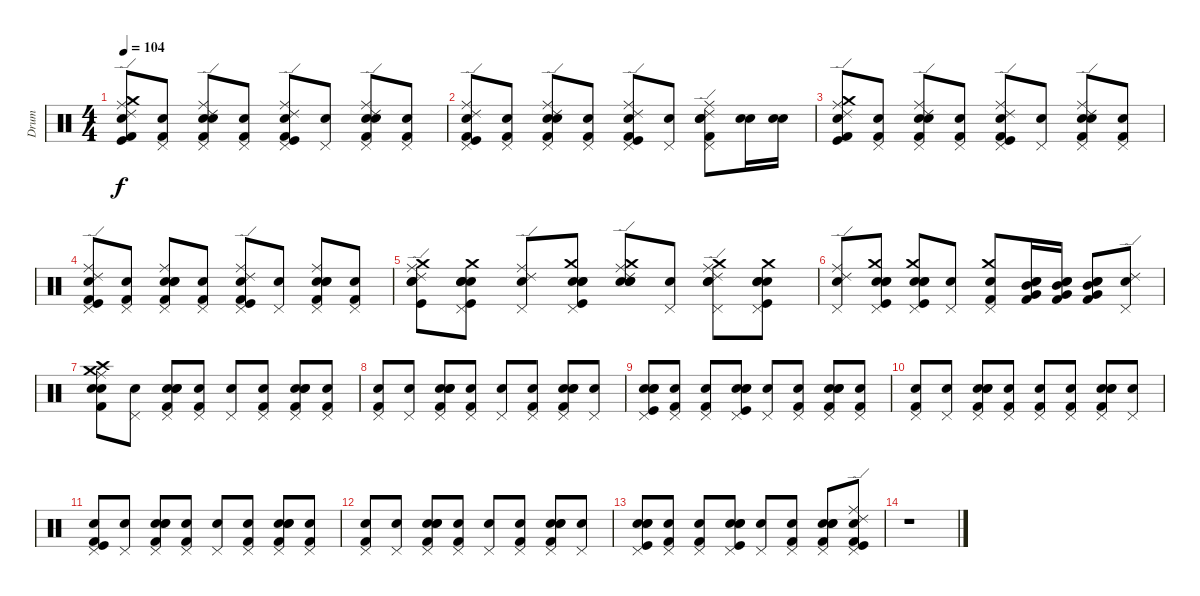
\track ("Drum" "Drum") {instrument percussion}
\staff {score}
\articulation defaults
\ts (4 4)
\tempo 104
\clef neutral
\ks c
("Snare (hit)" "Kick (hit) 2" "Ride (middle)" "Ride (edge) 2" "Crash medium (hit)" "Kick (hit)").8{dy f} ("Snare (hit)" "Kick (hit) 2" "Pedal Hi-Hat (hit)").8 ("Snare (hit)" "Ride (middle)" "Ride (edge) 2" "Pedal Hi-Hat (hit)" "Snare (hit) 2" "Kick (hit) 2").8 ("Snare (hit)" "Kick (hit) 2" "Pedal Hi-Hat (hit)").8 ("Snare (hit)" "Kick (hit) 2" "Ride (middle)" "Ride (edge) 2" "Pedal Hi-Hat (hit)" "Kick (hit)").8 ("Snare (hit)" "Pedal Hi-Hat (hit)").8 ("Snare (hit)" "Ride (middle)" "Ride (edge) 2" "Pedal Hi-Hat (hit)" "Electric Snare (hit)" "Kick (hit) 2").8 ("Snare (hit)" "Kick (hit) 2" "Pedal Hi-Hat (hit)").8 |
("Snare (hit)" "Kick (hit) 2" "Ride (middle)" "Ride (edge) 2" "Pedal Hi-Hat (hit)" "Kick (hit)").8 ("Snare (hit)" "Kick (hit) 2" "Pedal Hi-Hat (hit)").8 ("Snare (hit)" "Ride (middle)" "Ride (edge) 2" "Pedal Hi-Hat (hit)" "Snare (hit) 2" "Kick (hit) 2").8 ("Snare (hit)" "Kick (hit) 2" "Pedal Hi-Hat (hit)").8 ("Snare (hit)" "Kick (hit) 2" "Ride (middle)" "Ride (edge) 2" "Pedal Hi-Hat (hit)" "Kick (hit)").8 ("Snare (hit)" "Pedal Hi-Hat (hit)").8 ("Snare (hit)" "Ride (middle)" "Ride (edge) 2" "Pedal Hi-Hat (hit)" "Electric Snare (hit)" "Kick (hit) 2").8 ("Snare (hit)" "Snare (hit) 2").16 ("Snare (hit)" "Snare (hit) 2").16 |
("Snare (hit)" "Kick (hit) 2" "Ride (middle)" "Ride (edge) 2" "Crash medium (hit)" "Kick (hit)").8 ("Snare (hit)" "Kick (hit) 2" "Pedal Hi-Hat (hit)").8 ("Snare (hit)" "Ride (middle)" "Ride (edge) 2" "Pedal Hi-Hat (hit)" "Snare (hit) 2" "Kick (hit) 2").8 ("Snare (hit)" "Kick (hit) 2" "Pedal Hi-Hat (hit)").8 ("Snare (hit)" "Kick (hit) 2" "Ride (middle)" "Ride (edge) 2" "Pedal Hi-Hat (hit)" "Kick (hit)").8 ("Snare (hit)" "Pedal Hi-Hat (hit)").8 ("Snare (hit)" "Ride (middle)" "Ride (edge) 2" "Pedal Hi-Hat (hit)" "Electric Snare (hit)" "Kick (hit) 2").8 ("Snare (hit)" "Kick (hit) 2" "Pedal Hi-Hat (hit)").8 |
("Snare (hit)" "Kick (hit)" "Pedal Hi-Hat (hit)" "Ride (edge) 2" "Ride (middle)" "Kick (hit) 2").8 ("Snare (hit)" "Pedal Hi-Hat (hit)" "Kick (hit) 2").8 ("Snare (hit)" "Kick (hit) 2" "Electric Snare (hit)" "Snare (hit) 2" "Pedal Hi-Hat (hit)" "Ride (middle)").8 ("Snare (hit)" "Pedal Hi-Hat (hit)" "Kick (hit) 2").8 ("Snare (hit)" "Kick (hit)" "Pedal Hi-Hat (hit)" "Ride (edge) 2" "Ride (middle)" "Kick (hit) 2").8 ("Snare (hit)" "Pedal Hi-Hat (hit)").8 ("Snare (hit)" "Kick (hit) 2" "Snare (hit) 2" "Electric Snare (hit)" "Pedal Hi-Hat (hit)" "Ride (middle)").8 ("Snare (hit)" "Pedal Hi-Hat (hit)" "Kick (hit) 2").8 |
("Snare (hit)" "Ride (middle)" "Electric Snare (hit)" "Crash medium (hit)" "Ride (edge) 2" "Kick (hit)").8 ("Snare (hit)" "Electric Snare (hit)" "Crash medium (hit)" "Kick (hit)" "Pedal Hi-Hat (hit)" "Snare (hit) 2").8 ("Snare (hit)" "Ride (middle)" "Ride (edge) 2" "Pedal Hi-Hat (hit)").8 ("Snare (hit)" "Electric Snare (hit)" "Crash medium (hit)" "Snare (hit) 2" "Pedal Hi-Hat (hit)" "Kick (hit)").8 ("Snare (hit)" "Ride (middle)" "Electric Snare (hit)" "Crash medium (hit)" "Ride (edge) 2" "Snare (hit) 2").8 ("Snare (hit)" "Pedal Hi-Hat (hit)").8 ("Snare (hit)" "Ride (middle)" "Electric Snare (hit)" "Crash medium (hit)" "Ride (edge) 2" "Pedal Hi-Hat (hit)").8 ("Snare (hit)" "Electric Snare (hit)" "Crash medium (hit)" "Pedal Hi-Hat (hit)" "Snare (hit) 2" "Kick (hit)").8 |
("Snare (hit)" "Ride (middle)" "Pedal Hi-Hat (hit)" "Ride (edge) 2").8 ("Snare (hit)" "Snare (hit) 2" "Pedal Hi-Hat (hit)" "Kick (hit)" "Crash medium (hit)" "Electric Snare (hit)").8 ("Snare (hit)" "Snare (hit) 2" "Pedal Hi-Hat (hit)" "Crash medium (hit)" "Kick (hit)" "Electric Snare (hit)").8 ("Snare (hit)" "Pedal Hi-Hat (hit)").8 ("Snare (hit)" "Kick (hit) 2" "Crash medium (hit)" "Pedal Hi-Hat (hit)").8 ("Snare (hit)" "Kick (hit) 2" "Mid Tom (hit)" "Electric Snare (hit)" "Very Low Tom (hit)").16 ("Snare (hit)" "Mid Tom (hit)" "Electric Snare (hit)" "Very Low Tom (hit)" "Kick (hit) 2").16 ("Snare (hit)" "Kick (hit) 2" "Mid Tom (hit)" "Electric Snare (hit)" "Very Low Tom (hit)").8 ("Snare (hit)" "Ride (edge) 2" "Pedal Hi-Hat (hit)").8 |
("Snare (hit)" "Ride (middle)" "Crash medium (hit)" "Electric Snare (hit)" "Kick (hit) 2" "Crash high (hit)").8 ("Snare (hit)" "Pedal Hi-Hat (hit)").8 ("Snare (hit)" "Kick (hit) 2" "Electric Snare (hit)" "Snare (hit) 2" "Pedal Hi-Hat (hit)").8 ("Snare (hit)" "Kick (hit) 2" "Pedal Hi-Hat (hit)").8 ("Snare (hit)" "Pedal Hi-Hat (hit)").8 ("Snare (hit)" "Kick (hit) 2" "Pedal Hi-Hat (hit)").8 ("Snare (hit)" "Kick (hit) 2" "Snare (hit) 2" "Electric Snare (hit)" "Pedal Hi-Hat (hit)").8 ("Snare (hit)" "Kick (hit) 2" "Pedal Hi-Hat (hit)").8 |
("Snare (hit)" "Pedal Hi-Hat (hit)" "Kick (hit) 2").8 ("Snare (hit)" "Pedal Hi-Hat (hit)").8 ("Snare (hit)" "Pedal Hi-Hat (hit)" "Snare (hit) 2" "Electric Snare (hit)" "Kick (hit) 2").8 ("Snare (hit)" "Kick (hit) 2" "Pedal Hi-Hat (hit)").8 ("Snare (hit)" "Pedal Hi-Hat (hit)").8 ("Snare (hit)" "Kick (hit) 2" "Pedal Hi-Hat (hit)").8 ("Snare (hit)" "Pedal Hi-Hat (hit)" "Electric Snare (hit)" "Snare (hit) 2" "Kick (hit) 2").8 ("Snare (hit)" "Pedal Hi-Hat (hit)").8 |
("Snare (hit)" "Pedal Hi-Hat (hit)" "Kick (hit)" "Snare (hit) 2" "Electric Snare (hit)").8 ("Snare (hit)" "Kick (hit) 2" "Pedal Hi-Hat (hit)").8 ("Snare (hit)" "Pedal Hi-Hat (hit)" "Kick (hit) 2").8 ("Snare (hit)" "Pedal Hi-Hat (hit)" "Kick (hit)" "Electric Snare (hit)" "Snare (hit) 2").8 ("Snare (hit)" "Pedal Hi-Hat (hit)").8 ("Snare (hit)" "Kick (hit) 2" "Pedal Hi-Hat (hit)").8 ("Snare (hit)" "Snare (hit) 2" "Kick (hit) 2" "Electric Snare (hit)" "Pedal Hi-Hat (hit)").8 ("Snare (hit)" "Kick (hit) 2" "Pedal Hi-Hat (hit)").8 |
("Snare (hit)" "Kick (hit) 2" "Pedal Hi-Hat (hit)").8 ("Snare (hit)" "Pedal Hi-Hat (hit)").8 ("Snare (hit)" "Snare (hit) 2" "Pedal Hi-Hat (hit)" "Kick (hit) 2" "Electric Snare (hit)").8 ("Snare (hit)" "Kick (hit) 2" "Pedal Hi-Hat (hit)").8 ("Snare (hit)" "Pedal Hi-Hat (hit)" "Kick (hit) 2").8 ("Snare (hit)" "Pedal Hi-Hat (hit)" "Kick (hit) 2").8 ("Snare (hit)" "Pedal Hi-Hat (hit)" "Kick (hit) 2" "Snare (hit) 2" "Electric Snare (hit)").8 ("Snare (hit)" "Pedal Hi-Hat (hit)").8 |
("Snare (hit)" "Pedal Hi-Hat (hit)" "Kick (hit)" "Kick (hit) 2").8 ("Snare (hit)" "Pedal Hi-Hat (hit)").8 ("Snare (hit)" "Pedal Hi-Hat (hit)" "Snare (hit) 2" "Electric Snare (hit)" "Kick (hit) 2").8 ("Snare (hit)" "Pedal Hi-Hat (hit)" "Kick (hit) 2").8 ("Snare (hit)" "Pedal Hi-Hat (hit)").8 ("Snare (hit)" "Pedal Hi-Hat (hit)" "Kick (hit) 2").8 ("Snare (hit)" "Pedal Hi-Hat (hit)" "Electric Snare (hit)" "Snare (hit) 2" "Kick (hit) 2").8 ("Snare (hit)" "Pedal Hi-Hat (hit)" "Kick (hit) 2").8 |
("Snare (hit)" "Kick (hit) 2" "Pedal Hi-Hat (hit)").8 ("Snare (hit)" "Pedal Hi-Hat (hit)").8 ("Snare (hit)" "Kick (hit) 2" "Electric Snare (hit)" "Snare (hit) 2" "Pedal Hi-Hat (hit)").8 ("Snare (hit)" "Pedal Hi-Hat (hit)" "Kick (hit) 2").8 ("Snare (hit)" "Pedal Hi-Hat (hit)").8 ("Snare (hit)" "Pedal Hi-Hat (hit)" "Kick (hit) 2").8 ("Snare (hit)" "Kick (hit) 2" "Snare (hit) 2" "Electric Snare (hit)" "Pedal Hi-Hat (hit)").8 ("Snare (hit)" "Pedal Hi-Hat (hit)").8 |
("Snare (hit)" "Electric Snare (hit)" "Snare (hit) 2" "Pedal Hi-Hat (hit)" "Kick (hit)").8 ("Snare (hit)" "Pedal Hi-Hat (hit)" "Kick (hit) 2").8 ("Snare (hit)" "Pedal Hi-Hat (hit)" "Kick (hit) 2").8 ("Snare (hit)" "Snare (hit) 2" "Electric Snare (hit)" "Pedal Hi-Hat (hit)" "Kick (hit)").8 ("Snare (hit)" "Pedal Hi-Hat (hit)").8 ("Snare (hit)" "Pedal Hi-Hat (hit)" "Kick (hit) 2").8 ("Snare (hit)" "Pedal Hi-Hat (hit)" "Electric Snare (hit)" "Snare (hit) 2" "Kick (hit) 2").8 ("Snare (hit)" "Ride (edge) 2" "Kick (hit)" "Ride (middle)" "Pedal Hi-Hat (hit)" "Kick (hit) 2").8 |
r.1
